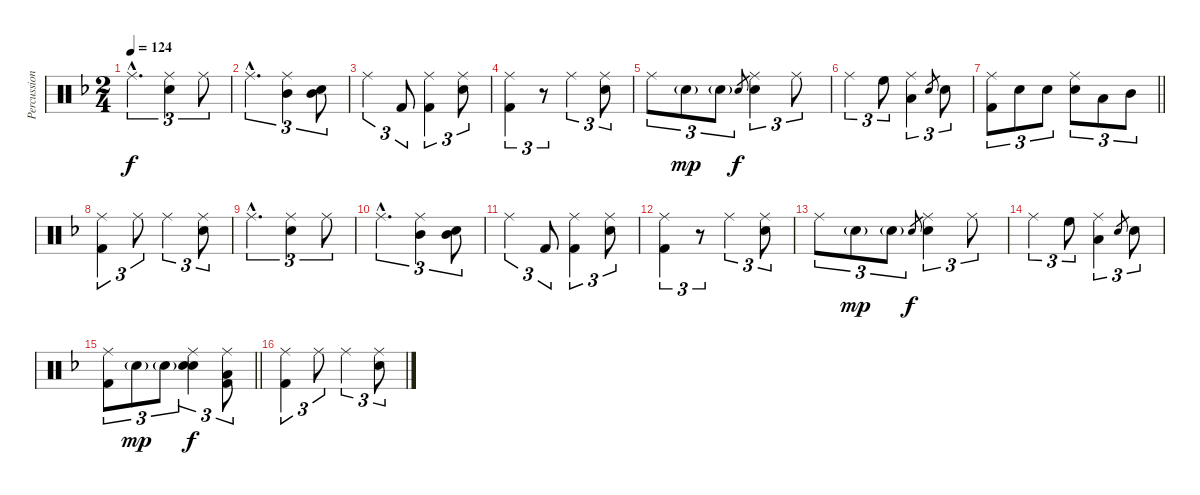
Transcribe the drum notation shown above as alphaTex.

\track ("Percussions" "Percussion") {instrument percussion}
\staff {score}
\articulation defaults
\ts (2 4)
\tempo 124
\clef neutral
\ks dminor "Ride (middle)"{hac}.4{d tu (3 2) dy f}
("Ride (middle)" "Snare (hit) 2").4{tu (3 2)} "Ride (middle)".8{tu (3 2)} |
"Ride (middle)"{hac}.4{d tu (3 2)} ("Ride (middle)" "Mid Tom (hit)").4{tu (3 2)} ("Mid Tom (hit)" "Snare (hit) 2").8{tu (3 2)} |
"Ride (middle)".4{tu (3 2)} "Kick (hit) 2".8{tu (3 2)} ("Ride (middle)" "Kick (hit) 2").4{tu (3 2)} ("Ride (middle)" "Snare (hit) 2").8{tu (3 2)} |
("Ride (middle)" "Kick (hit) 2").4{tu (3 2)} r.8{tu (3 2)} "Ride (middle)".4{tu (3 2)} ("Ride (middle)" "Snare (hit) 2").8{tu (3 2)} |
"Ride (middle)".8{tu (3 2)} "Snare (hit) 2"{g}.8{tu (3 2) dy mp} "Snare (hit) 2"{g}.8{tu (3 2)} "Snare (hit) 2".8{gr dy f} ("Ride (middle)" "Snare (hit) 2").4{tu (3 2)} "Ride (middle)".8{tu (3 2)} |
"Ride (middle)".4{tu (3 2)} "High Floor Tom (hit)".8{tu (3 2)} ("Ride (middle)" "Low Tom (hit)").4{tu (3 2)} "Snare (hit) 2".8{gr} "Snare (hit) 2".8{tu (3 2)} |
\barLineRight lightlight
("Ride (middle)" "Kick (hit) 2").8{tu (3 2)} "Snare (hit) 2".8{tu (3 2)} "Snare (hit) 2".8{tu (3 2)} ("Ride (middle)" "Snare (hit) 2").8{tu (3 2)} "Low Tom (hit)".8{tu (3 2)} "Mid Tom (hit)".8{tu (3 2)} |
("Ride (middle)" "Kick (hit) 2").4{tu (3 2) volume 13} "Ride (middle)".8{tu (3 2)} "Ride (middle)".4{tu (3 2)} ("Ride (middle)" "Snare (hit) 2").8{tu (3 2)} |
"Ride (middle)"{hac}.4{d tu (3 2)} ("Ride (middle)" "Snare (hit) 2").4{tu (3 2)} "Ride (middle)".8{tu (3 2)} |
"Ride (middle)"{hac}.4{d tu (3 2)} ("Ride (middle)" "Mid Tom (hit)").4{tu (3 2)} ("Mid Tom (hit)" "Snare (hit) 2").8{tu (3 2)} |
"Ride (middle)".4{tu (3 2)} "Kick (hit) 2".8{tu (3 2)} ("Ride (middle)" "Kick (hit) 2").4{tu (3 2)} ("Ride (middle)" "Snare (hit) 2").8{tu (3 2)} |
("Ride (middle)" "Kick (hit) 2").4{tu (3 2)} r.8{tu (3 2)} "Ride (middle)".4{tu (3 2)} ("Ride (middle)" "Snare (hit) 2").8{tu (3 2)} |
"Ride (middle)".8{tu (3 2)} "Snare (hit) 2"{g}.8{tu (3 2) dy mp} "Snare (hit) 2"{g}.8{tu (3 2)} "Snare (hit) 2".8{gr dy f} ("Ride (middle)" "Snare (hit) 2").4{tu (3 2)} "Ride (middle)".8{tu (3 2)} |
"Ride (middle)".4{tu (3 2)} "High Floor Tom (hit)".8{tu (3 2)} ("Ride (middle)" "Low Tom (hit)").4{tu (3 2)} "Snare (hit) 2".8{gr} "Snare (hit) 2".8{tu (3 2)} |
\barLineRight lightlight
("Ride (middle)" "Kick (hit) 2").8{tu (3 2)} "Snare (hit) 2"{g}.8{tu (3 2) dy mp} "Snare (hit) 2"{g}.8{tu (3 2)} ("Ride (middle)" "Snare (hit) 2" "Electric Snare (hit)").4{tu (3 2) dy f} ("Ride (middle)" "Low Tom (hit)" "Kick (hit) 2").8{tu (3 2)} |
("Ride (middle)" "Kick (hit) 2").4{tu (3 2)} "Ride (middle)".8{tu (3 2)} "Ride (middle)".4{tu (3 2)} ("Ride (middle)" "Snare (hit) 2").8{tu (3 2)}
